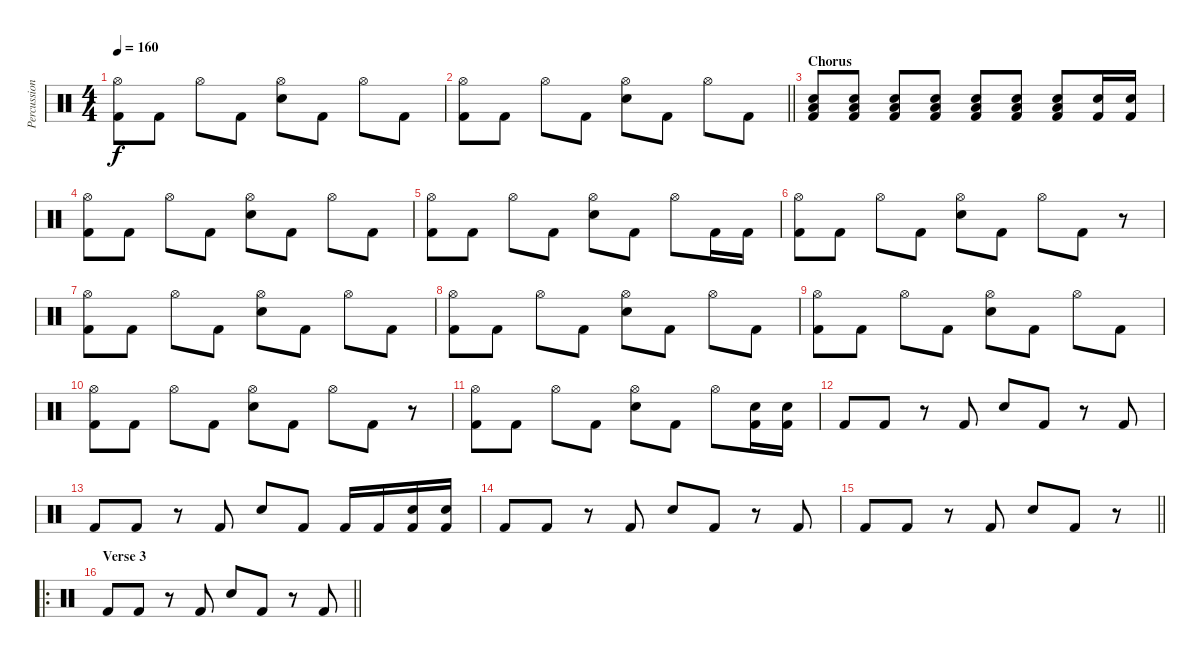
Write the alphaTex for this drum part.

\track ("Percussion" "Percussion") {instrument percussion}
\staff {score}
\articulation defaults
\ts (4 4)
\tempo 160
\clef neutral
\ks c
("Hi-Hat (open)" "Kick (hit) 2").8{dy f} "Kick (hit) 2".8 "Hi-Hat (open)".8 "Kick (hit) 2".8 ("Hi-Hat (open)" "Snare (hit) 2").8 "Kick (hit) 2".8 "Hi-Hat (open)".8 "Kick (hit) 2".8 |
\barLineRight lightlight
("Hi-Hat (open)" "Kick (hit) 2").8 "Kick (hit) 2".8 "Hi-Hat (open)".8 "Kick (hit) 2".8 ("Hi-Hat (open)" "Snare (hit) 2").8 "Kick (hit) 2".8 "Hi-Hat (open)".8 "Kick (hit) 2".8 |
\section ("" "Chorus")
("Low Floor Tom (hit)" "Electric Snare (hit)" "Kick (hit) 2").8 ("Low Floor Tom (hit)" "Electric Snare (hit)" "Kick (hit) 2").8 ("Low Floor Tom (hit)" "Electric Snare (hit)" "Kick (hit) 2").8 ("Low Floor Tom (hit)" "Electric Snare (hit)" "Kick (hit) 2").8 ("Low Floor Tom (hit)" "Electric Snare (hit)" "Kick (hit) 2").8 ("Low Floor Tom (hit)" "Electric Snare (hit)" "Kick (hit) 2").8 ("Low Floor Tom (hit)" "Electric Snare (hit)" "Kick (hit) 2").8 ("Electric Snare (hit)" "Kick (hit) 2").16 ("Electric Snare (hit)" "Kick (hit) 2").16 |
("Hi-Hat (open)" "Kick (hit) 2").8 "Kick (hit) 2".8 "Hi-Hat (open)".8 "Kick (hit) 2".8 ("Hi-Hat (open)" "Snare (hit) 2").8 "Kick (hit) 2".8 "Hi-Hat (open)".8 "Kick (hit) 2".8 |
("Hi-Hat (open)" "Kick (hit) 2").8 "Kick (hit) 2".8 "Hi-Hat (open)".8 "Kick (hit) 2".8 ("Hi-Hat (open)" "Snare (hit) 2").8 "Kick (hit) 2".8 "Hi-Hat (open)".8 "Kick (hit) 2".16 "Kick (hit) 2".16 |
("Hi-Hat (open)" "Kick (hit) 2").8 "Kick (hit) 2".8 "Hi-Hat (open)".8 "Kick (hit) 2".8 ("Hi-Hat (open)" "Snare (hit) 2").8 "Kick (hit) 2".8 "Hi-Hat (open)".8 "Kick (hit) 2".8 r.8 |
("Hi-Hat (open)" "Kick (hit) 2").8 "Kick (hit) 2".8 "Hi-Hat (open)".8 "Kick (hit) 2".8 ("Hi-Hat (open)" "Snare (hit) 2").8 "Kick (hit) 2".8 "Hi-Hat (open)".8 "Kick (hit) 2".8 |
("Hi-Hat (open)" "Kick (hit) 2").8 "Kick (hit) 2".8 "Hi-Hat (open)".8 "Kick (hit) 2".8 ("Hi-Hat (open)" "Snare (hit) 2").8 "Kick (hit) 2".8 "Hi-Hat (open)".8 "Kick (hit) 2".8 |
("Hi-Hat (open)" "Kick (hit) 2").8 "Kick (hit) 2".8 "Hi-Hat (open)".8 "Kick (hit) 2".8 ("Hi-Hat (open)" "Snare (hit) 2").8 "Kick (hit) 2".8 "Hi-Hat (open)".8 "Kick (hit) 2".8 |
("Hi-Hat (open)" "Kick (hit) 2").8 "Kick (hit) 2".8 "Hi-Hat (open)".8 "Kick (hit) 2".8 ("Hi-Hat (open)" "Snare (hit) 2").8 "Kick (hit) 2".8 "Hi-Hat (open)".8 "Kick (hit) 2".8 r.8 |
("Hi-Hat (open)" "Kick (hit) 2").8 "Kick (hit) 2".8 "Hi-Hat (open)".8 "Kick (hit) 2".8 ("Hi-Hat (open)" "Snare (hit) 2").8 "Kick (hit) 2".8 "Hi-Hat (open)".8 ("Kick (hit) 2" "Electric Snare (hit)").16 ("Kick (hit) 2" "Electric Snare (hit)").16 |
"Kick (hit) 2".8 "Kick (hit) 2".8 r.8 "Kick (hit) 2".8 "Snare (hit) 2".8 "Kick (hit) 2".8 r.8 "Kick (hit) 2".8 |
"Kick (hit) 2".8 "Kick (hit) 2".8 r.8 "Kick (hit) 2".8 "Snare (hit) 2".8 "Kick (hit) 2".8 "Kick (hit) 2".16 "Kick (hit) 2".16 ("Snare (hit) 2" "Kick (hit) 2").16 ("Snare (hit) 2" "Kick (hit) 2").16 |
"Kick (hit) 2".8 "Kick (hit) 2".8 r.8 "Kick (hit) 2".8 "Snare (hit) 2".8 "Kick (hit) 2".8 r.8 "Kick (hit) 2".8 |
\barLineRight lightlight "Kick (hit) 2".8 "Kick (hit) 2".8
r.8 "Kick (hit) 2".8 "Snare (hit) 2".8 "Kick (hit) 2".8 r.8 |
\ro
\section ("" "Verse 3")
\barLineRight lightlight "Kick (hit) 2".8 "Kick (hit) 2".8
r.8 "Kick (hit) 2".8 "Snare (hit) 2".8 "Kick (hit) 2".8 r.8 "Kick (hit) 2".8
